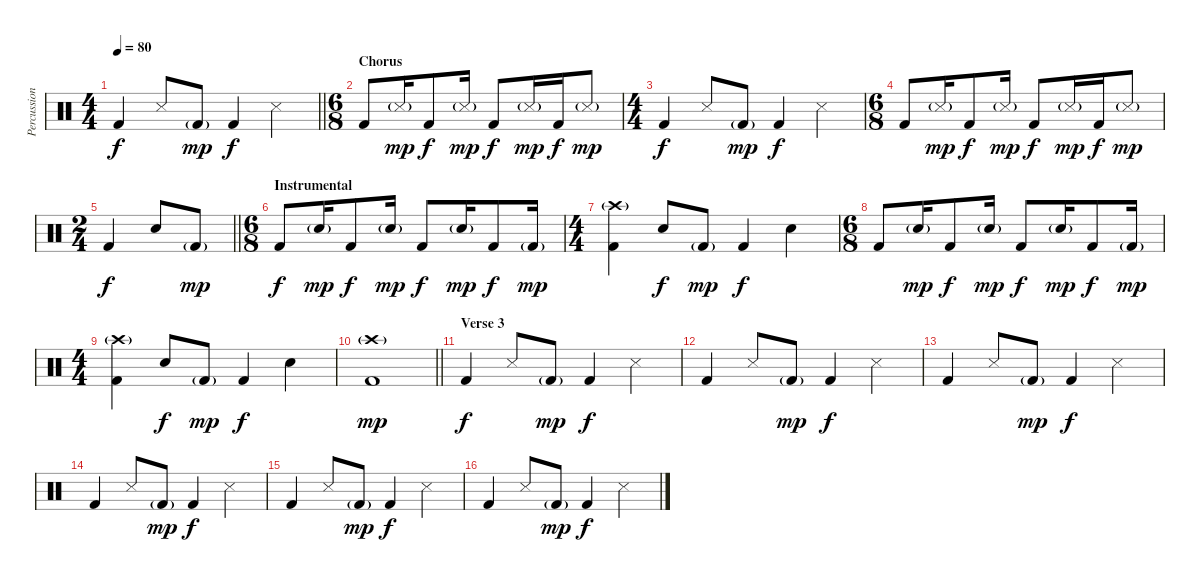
\track ("Percussion" "Percussion") {instrument percussion}
\staff {score}
\articulation defaults
\ts (4 4)
\tempo 80
\clef neutral
\barLineRight lightlight
\ks c "Kick (hit) 2".4{dy f} "Snare (side stick) 3".8 "Kick (hit) 2"{g}.8{dy mp} "Kick (hit) 2".4{dy f} "Snare (side stick) 3".4
|
\ts (6 8)
\section ("" "Chorus")
"Kick (hit) 2".8 "Snare (side stick) 3"{g}.16{dy mp} "Kick (hit) 2".8{dy f} "Snare (side stick) 3"{g}.16{dy mp} "Kick (hit) 2".8{dy f} "Snare (side stick) 3"{g}.16{dy mp} "Kick (hit) 2".16{dy f} "Snare (side stick) 3"{g}.8{dy mp} |
\ts (4 4)
"Kick (hit) 2".4{dy f} "Snare (side stick) 3".8 "Kick (hit) 2"{g}.8{dy mp} "Kick (hit) 2".4{dy f} "Snare (side stick) 3".4 |
\ts (6 8)
"Kick (hit) 2".8 "Snare (side stick) 3"{g}.16{dy mp} "Kick (hit) 2".8{dy f} "Snare (side stick) 3"{g}.16{dy mp} "Kick (hit) 2".8{dy f} "Snare (side stick) 3"{g}.16{dy mp} "Kick (hit) 2".16{dy f} "Snare (side stick) 3"{g}.8{dy mp} |
\ts (2 4)
\barLineRight lightlight "Kick (hit) 2".4{dy f} "Snare (hit) 2".8 "Kick (hit) 2"{g}.8{dy mp}
|
\ts (6 8)
\section ("" "Instrumental")
"Kick (hit) 2".8{dy f} "Snare (hit) 2"{g}.16{dy mp} "Kick (hit) 2".8{dy f} "Snare (hit) 2"{g}.16{dy mp} "Kick (hit) 2".8{dy f} "Snare (hit) 2"{g}.16{dy mp} "Kick (hit) 2".8{dy f} "Kick (hit) 2"{g}.16{dy mp} |
\ts (4 4)
("Crash high (hit)"{g} "Kick (hit) 2").4 "Snare (hit) 2".8{dy f} "Kick (hit) 2"{g}.8{dy mp} "Kick (hit) 2".4{dy f} "Snare (hit) 2".4 |
\ts (6 8)
"Kick (hit) 2".8 "Snare (hit) 2"{g}.16{dy mp} "Kick (hit) 2".8{dy f} "Snare (hit) 2"{g}.16{dy mp} "Kick (hit) 2".8{dy f} "Snare (hit) 2"{g}.16{dy mp} "Kick (hit) 2".8{dy f} "Kick (hit) 2"{g}.16{dy mp} |
\ts (4 4)
("Crash high (hit)"{g} "Kick (hit) 2").4 "Snare (hit) 2".8{dy f} "Kick (hit) 2"{g}.8{dy mp} "Kick (hit) 2".4{dy f} "Snare (hit) 2".4 |
\barLineRight lightlight
("Crash high (hit)"{g} "Kick (hit) 2").1{dy mp} |
\section ("" "Verse 3")
"Kick (hit) 2".4{dy f} "Snare (side stick) 3".8 "Kick (hit) 2"{g}.8{dy mp} "Kick (hit) 2".4{dy f} "Snare (side stick) 3".4 |
"Kick (hit) 2".4 "Snare (side stick) 3".8 "Kick (hit) 2"{g}.8{dy mp} "Kick (hit) 2".4{dy f} "Snare (side stick) 3".4 |
"Kick (hit) 2".4 "Snare (side stick) 3".8 "Kick (hit) 2"{g}.8{dy mp} "Kick (hit) 2".4{dy f} "Snare (side stick) 3".4 |
"Kick (hit) 2".4 "Snare (side stick) 3".8 "Kick (hit) 2"{g}.8{dy mp} "Kick (hit) 2".4{dy f} "Snare (side stick) 3".4 |
"Kick (hit) 2".4 "Snare (side stick) 3".8 "Kick (hit) 2"{g}.8{dy mp} "Kick (hit) 2".4{dy f} "Snare (side stick) 3".4 |
"Kick (hit) 2".4 "Snare (side stick) 3".8 "Kick (hit) 2"{g}.8{dy mp} "Kick (hit) 2".4{dy f} "Snare (side stick) 3".4
